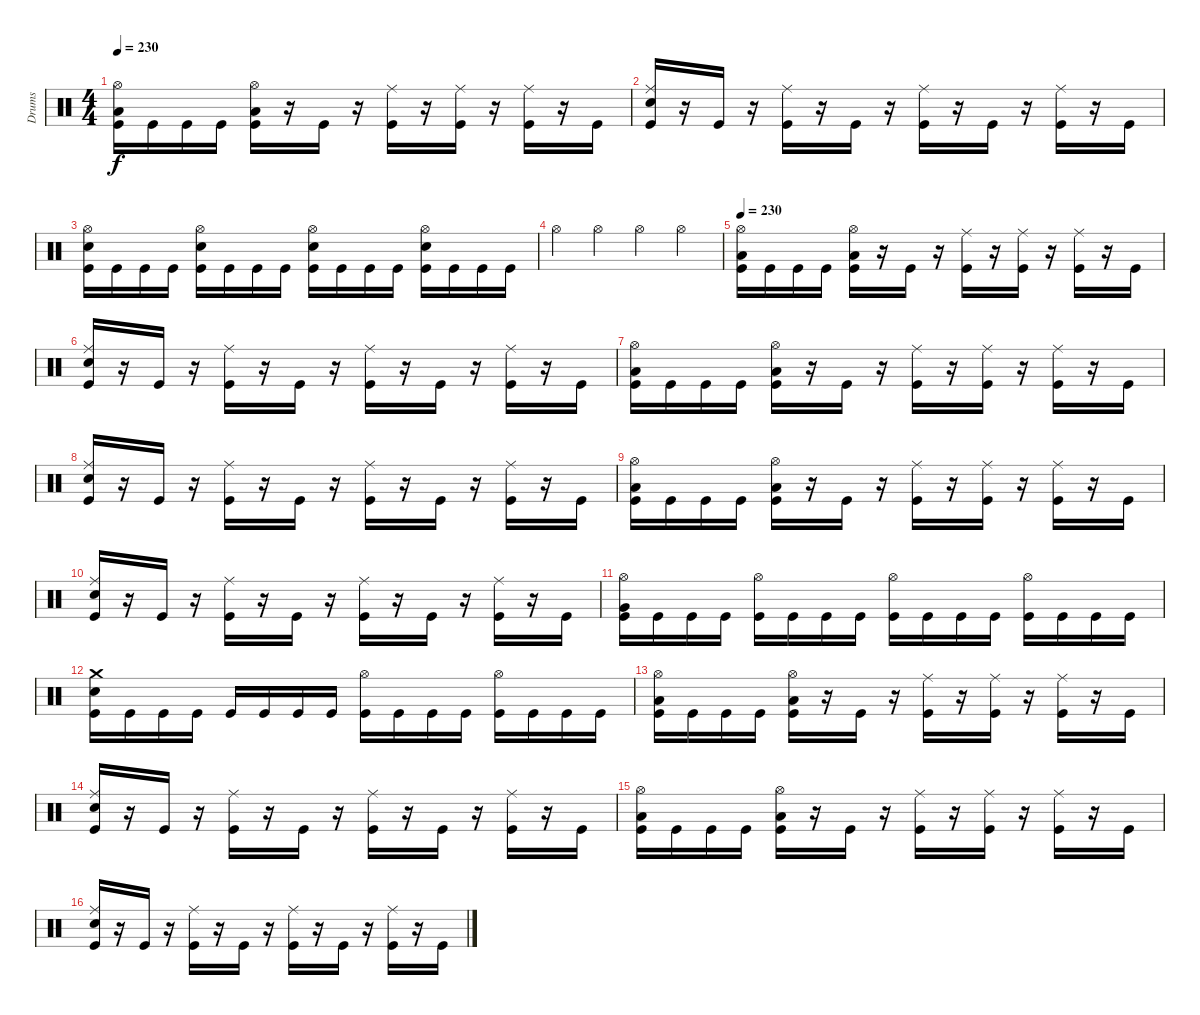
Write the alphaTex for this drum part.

\track ("Drums" "Drums") {instrument percussion}
\staff {score}
\articulation defaults
\ts (4 4)
\tempo 230
\clef neutral
\ks c
("Hi-Hat (open)" "Low Floor Tom (hit)" "Kick (hit)").16{dy f} "Kick (hit)".16 "Kick (hit)".16 "Kick (hit)".16 ("Hi-Hat (open)" "Low Floor Tom (hit)" "Kick (hit)").16 r.16 "Kick (hit)".16 r.16 ("Ride (middle)" "Kick (hit)").16 r.16 ("Ride (middle)" "Kick (hit)").16 r.16 ("Ride (middle)" "Kick (hit)").16 r.16 "Kick (hit)".16 |
("Ride (middle)" "Electric Snare (hit)" "Kick (hit)").16 r.16 "Kick (hit)".16 r.16 ("Ride (middle)" "Kick (hit)").16 r.16 "Kick (hit)".16 r.16 ("Ride (middle)" "Kick (hit)").16 r.16 "Kick (hit)".16 r.16 ("Ride (middle)" "Kick (hit)").16 r.16 "Kick (hit)".16 |
("Hi-Hat (open)" "Electric Snare (hit)" "Kick (hit)").16 "Kick (hit)".16 "Kick (hit)".16 "Kick (hit)".16 ("Hi-Hat (open)" "Electric Snare (hit)" "Kick (hit)").16 "Kick (hit)".16 "Kick (hit)".16 "Kick (hit)".16 ("Hi-Hat (open)" "Electric Snare (hit)" "Kick (hit)").16 "Kick (hit)".16 "Kick (hit)".16 "Kick (hit)".16 ("Hi-Hat (open)" "Electric Snare (hit)" "Kick (hit)").16 "Kick (hit)".16 "Kick (hit)".16 "Kick (hit)".16 |
"Hi-Hat (open)".4 "Hi-Hat (open)".4 "Hi-Hat (open)".4 "Hi-Hat (open)".4 |
\tempo 230
("Hi-Hat (open)" "Low Floor Tom (hit)" "Kick (hit)").16 "Kick (hit)".16 "Kick (hit)".16 "Kick (hit)".16 ("Hi-Hat (open)" "Low Floor Tom (hit)" "Kick (hit)").16 r.16 "Kick (hit)".16 r.16 ("Ride (middle)" "Kick (hit)").16 r.16 ("Ride (middle)" "Kick (hit)").16 r.16 ("Ride (middle)" "Kick (hit)").16 r.16 "Kick (hit)".16 |
("Ride (middle)" "Electric Snare (hit)" "Kick (hit)").16 r.16 "Kick (hit)".16 r.16 ("Ride (middle)" "Kick (hit)").16 r.16 "Kick (hit)".16 r.16 ("Ride (middle)" "Kick (hit)").16 r.16 "Kick (hit)".16 r.16 ("Ride (middle)" "Kick (hit)").16 r.16 "Kick (hit)".16 |
("Hi-Hat (open)" "Low Floor Tom (hit)" "Kick (hit)").16 "Kick (hit)".16 "Kick (hit)".16 "Kick (hit)".16 ("Hi-Hat (open)" "Low Floor Tom (hit)" "Kick (hit)").16 r.16 "Kick (hit)".16 r.16 ("Ride (middle)" "Kick (hit)").16 r.16 ("Ride (middle)" "Kick (hit)").16 r.16 ("Ride (middle)" "Kick (hit)").16 r.16 "Kick (hit)".16 |
("Ride (middle)" "Electric Snare (hit)" "Kick (hit)").16 r.16 "Kick (hit)".16 r.16 ("Ride (middle)" "Kick (hit)").16 r.16 "Kick (hit)".16 r.16 ("Ride (middle)" "Kick (hit)").16 r.16 "Kick (hit)".16 r.16 ("Ride (middle)" "Kick (hit)").16 r.16 "Kick (hit)".16 |
("Hi-Hat (open)" "Low Floor Tom (hit)" "Kick (hit)").16 "Kick (hit)".16 "Kick (hit)".16 "Kick (hit)".16 ("Hi-Hat (open)" "Low Floor Tom (hit)" "Kick (hit)").16 r.16 "Kick (hit)".16 r.16 ("Ride (middle)" "Kick (hit)").16 r.16 ("Ride (middle)" "Kick (hit)").16 r.16 ("Ride (middle)" "Kick (hit)").16 r.16 "Kick (hit)".16 |
("Ride (middle)" "Electric Snare (hit)" "Kick (hit)").16 r.16 "Kick (hit)".16 r.16 ("Ride (middle)" "Kick (hit)").16 r.16 "Kick (hit)".16 r.16 ("Ride (middle)" "Kick (hit)").16 r.16 "Kick (hit)".16 r.16 ("Ride (middle)" "Kick (hit)").16 r.16 "Kick (hit)".16 |
("Hi-Hat (open)" "Very Low Tom (hit)" "Kick (hit)").16 "Kick (hit)".16 "Kick (hit)".16 "Kick (hit)".16 ("Hi-Hat (open)" "Kick (hit)").16 "Kick (hit)".16 "Kick (hit)".16 "Kick (hit)".16 ("Hi-Hat (open)" "Kick (hit)").16 "Kick (hit)".16 "Kick (hit)".16 "Kick (hit)".16 ("Hi-Hat (open)" "Kick (hit)").16 "Kick (hit)".16 "Kick (hit)".16 "Kick (hit)".16 |
("Crash medium (hit)" "Electric Snare (hit)" "Kick (hit)").16 "Kick (hit)".16 "Kick (hit)".16 "Kick (hit)".16 "Kick (hit)".16 "Kick (hit)".16 "Kick (hit)".16 "Kick (hit)".16 ("Hi-Hat (open)" "Kick (hit)").16 "Kick (hit)".16 "Kick (hit)".16 "Kick (hit)".16 ("Hi-Hat (open)" "Kick (hit)").16 "Kick (hit)".16 "Kick (hit)".16 "Kick (hit)".16 |
("Hi-Hat (open)" "Low Floor Tom (hit)" "Kick (hit)").16 "Kick (hit)".16 "Kick (hit)".16 "Kick (hit)".16 ("Hi-Hat (open)" "Low Floor Tom (hit)" "Kick (hit)").16 r.16 "Kick (hit)".16 r.16 ("Ride (middle)" "Kick (hit)").16 r.16 ("Ride (middle)" "Kick (hit)").16 r.16 ("Ride (middle)" "Kick (hit)").16 r.16 "Kick (hit)".16 |
("Ride (middle)" "Electric Snare (hit)" "Kick (hit)").16 r.16 "Kick (hit)".16 r.16 ("Ride (middle)" "Kick (hit)").16 r.16 "Kick (hit)".16 r.16 ("Ride (middle)" "Kick (hit)").16 r.16 "Kick (hit)".16 r.16 ("Ride (middle)" "Kick (hit)").16 r.16 "Kick (hit)".16 |
("Hi-Hat (open)" "Low Floor Tom (hit)" "Kick (hit)").16 "Kick (hit)".16 "Kick (hit)".16 "Kick (hit)".16 ("Hi-Hat (open)" "Low Floor Tom (hit)" "Kick (hit)").16 r.16 "Kick (hit)".16 r.16 ("Ride (middle)" "Kick (hit)").16 r.16 ("Ride (middle)" "Kick (hit)").16 r.16 ("Ride (middle)" "Kick (hit)").16 r.16 "Kick (hit)".16 |
("Ride (middle)" "Electric Snare (hit)" "Kick (hit)").16 r.16 "Kick (hit)".16 r.16 ("Ride (middle)" "Kick (hit)").16 r.16 "Kick (hit)".16 r.16 ("Ride (middle)" "Kick (hit)").16 r.16 "Kick (hit)".16 r.16 ("Ride (middle)" "Kick (hit)").16 r.16 "Kick (hit)".16
